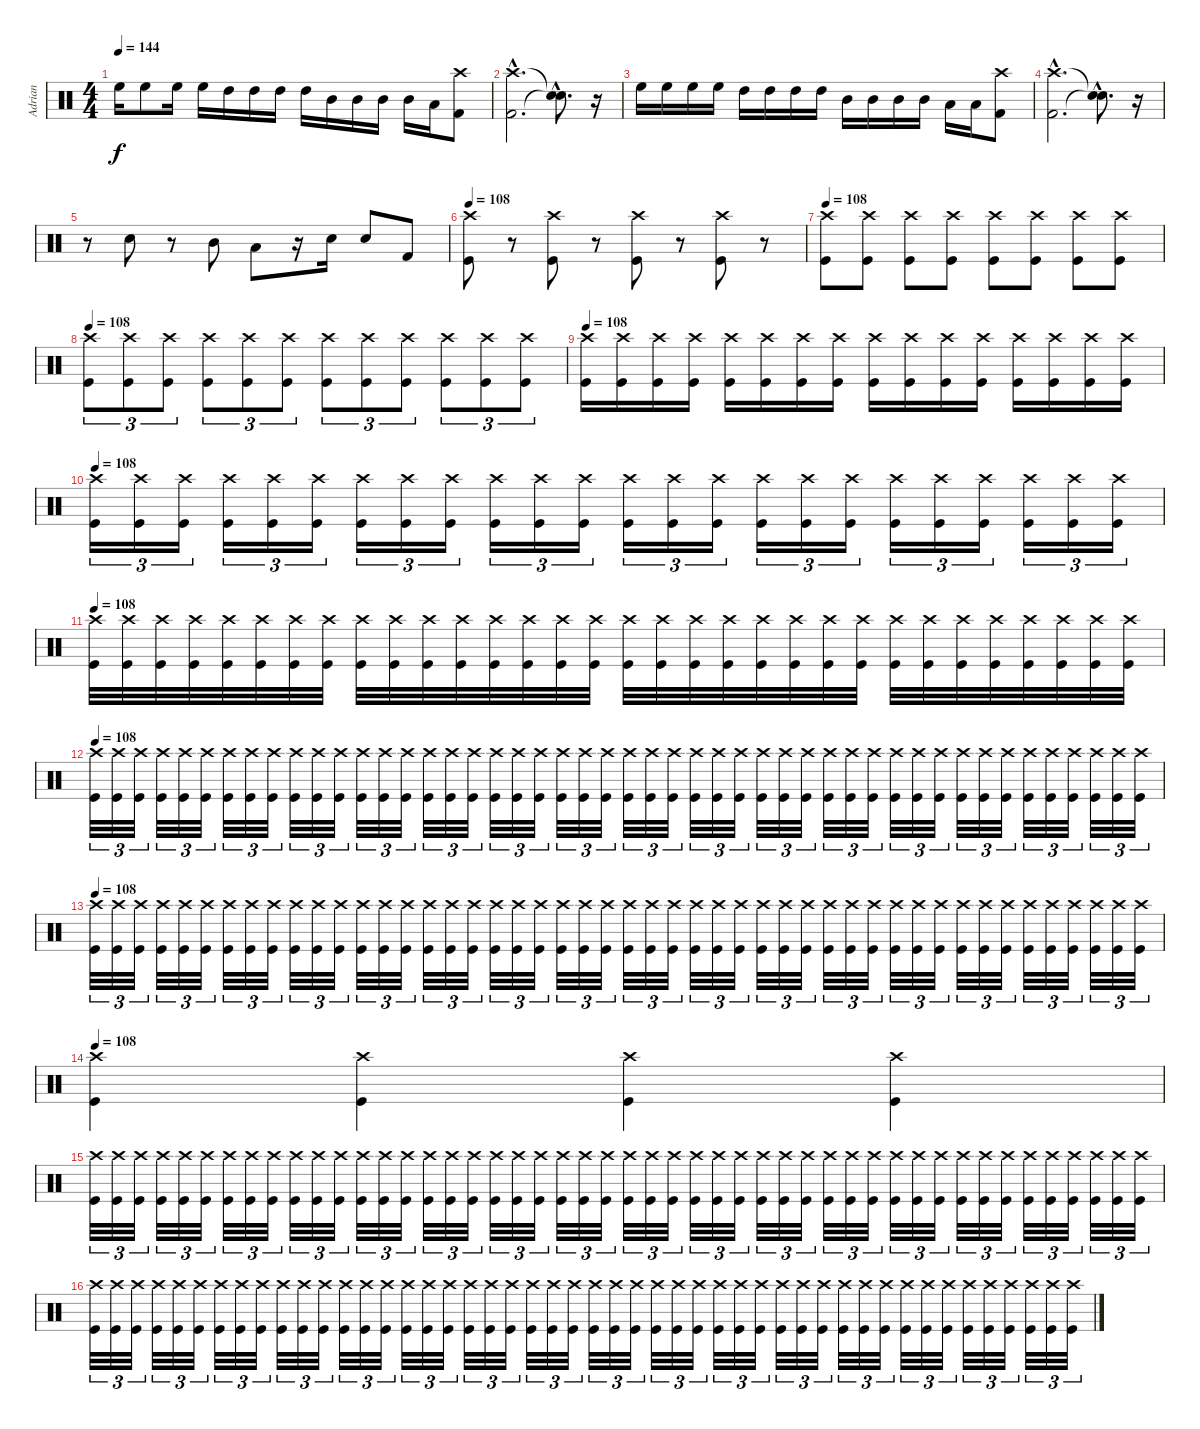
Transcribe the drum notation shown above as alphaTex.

\track ("Adrian" "Adrian") {instrument percussion}
\staff {score}
\articulation defaults
\ts (4 4)
\tempo 144
\clef neutral
\ks c "High Floor Tom (hit)".16{dy f} "High Floor Tom (hit)".8 "High Floor Tom (hit)".16 "High Floor Tom (hit)".16 "High Tom (hit)".16 "High Tom (hit)".16 "High Tom (hit)".16 "High Tom (hit)".16 "Mid Tom (hit)".16 "Mid Tom (hit)".16 "Mid Tom (hit)".16 "Mid Tom (hit)".16 "Low Tom (hit)".16
("Kick (hit) 2" "Crash high (hit)").8 |
("Kick (hit) 2"{hac} "Crash high (hit)"{hac}).2{d} ("Snare (hit)"{hac t} "Snare (hit)"{hac t}).8{d} r.16 |
"High Floor Tom (hit)".16 "High Floor Tom (hit)".16 "High Floor Tom (hit)".16 "High Floor Tom (hit)".16 "High Tom (hit)".16 "High Tom (hit)".16 "High Tom (hit)".16 "High Tom (hit)".16 "Mid Tom (hit)".16 "Mid Tom (hit)".16 "Mid Tom (hit)".16 "Mid Tom (hit)".16 "Low Tom (hit)".16 "Low Tom (hit)".16 ("Kick (hit) 2" "Crash high (hit)").8 |
("Kick (hit) 2"{hac} "Crash high (hit)"{hac}).2{d} ("Snare (hit)"{hac t} "Snare (hit)"{hac t}).8{d} r.16 |
r.8 "Snare (hit) 2".8 r.8 "Mid Tom (hit)".8 "Low Tom (hit)".8 r.16 "Snare (hit) 2".16 "Snare (hit) 2".8 "Kick (hit) 2".8 |
\tempo 108
("Kick (hit)" "Crash high (hit)").8 r.8 ("Kick (hit)" "Crash high (hit)").8 r.8 ("Kick (hit)" "Crash high (hit)").8 r.8 ("Kick (hit)" "Crash high (hit)").8 r.8 |
\tempo 108
("Kick (hit)" "Crash high (hit)").8 ("Kick (hit)" "Crash high (hit)").8 ("Kick (hit)" "Crash high (hit)").8 ("Kick (hit)" "Crash high (hit)").8 ("Kick (hit)" "Crash high (hit)").8 ("Kick (hit)" "Crash high (hit)").8 ("Kick (hit)" "Crash high (hit)").8 ("Kick (hit)" "Crash high (hit)").8 |
\tempo 108
("Kick (hit)" "Crash high (hit)").8{tu (3 2)} ("Kick (hit)" "Crash high (hit)").8{tu (3 2)} ("Kick (hit)" "Crash high (hit)").8{tu (3 2)} ("Kick (hit)" "Crash high (hit)").8{tu (3 2)} ("Kick (hit)" "Crash high (hit)").8{tu (3 2)} ("Kick (hit)" "Crash high (hit)").8{tu (3 2)} ("Kick (hit)" "Crash high (hit)").8{tu (3 2)} ("Kick (hit)" "Crash high (hit)").8{tu (3 2)} ("Kick (hit)" "Crash high (hit)").8{tu (3 2)} ("Kick (hit)" "Crash high (hit)").8{tu (3 2)} ("Kick (hit)" "Crash high (hit)").8{tu (3 2)} ("Kick (hit)" "Crash high (hit)").8{tu (3 2)} |
\tempo 108
("Kick (hit)" "Crash high (hit)").16 ("Kick (hit)" "Crash high (hit)").16 ("Kick (hit)" "Crash high (hit)").16 ("Kick (hit)" "Crash high (hit)").16 ("Kick (hit)" "Crash high (hit)").16 ("Kick (hit)" "Crash high (hit)").16 ("Kick (hit)" "Crash high (hit)").16 ("Kick (hit)" "Crash high (hit)").16 ("Kick (hit)" "Crash high (hit)").16 ("Kick (hit)" "Crash high (hit)").16 ("Kick (hit)" "Crash high (hit)").16 ("Kick (hit)" "Crash high (hit)").16 ("Kick (hit)" "Crash high (hit)").16 ("Kick (hit)" "Crash high (hit)").16 ("Kick (hit)" "Crash high (hit)").16 ("Kick (hit)" "Crash high (hit)").16 |
\tempo 108
("Kick (hit)" "Crash high (hit)").16{tu (3 2)} ("Kick (hit)" "Crash high (hit)").16{tu (3 2)} ("Kick (hit)" "Crash high (hit)").16{tu (3 2)} ("Kick (hit)" "Crash high (hit)").16{tu (3 2)} ("Kick (hit)" "Crash high (hit)").16{tu (3 2)} ("Kick (hit)" "Crash high (hit)").16{tu (3 2)} ("Kick (hit)" "Crash high (hit)").16{tu (3 2)} ("Kick (hit)" "Crash high (hit)").16{tu (3 2)} ("Kick (hit)" "Crash high (hit)").16{tu (3 2)} ("Kick (hit)" "Crash high (hit)").16{tu (3 2)} ("Kick (hit)" "Crash high (hit)").16{tu (3 2)} ("Kick (hit)" "Crash high (hit)").16{tu (3 2)} ("Kick (hit)" "Crash high (hit)").16{tu (3 2)} ("Kick (hit)" "Crash high (hit)").16{tu (3 2)} ("Kick (hit)" "Crash high (hit)").16{tu (3 2)} ("Kick (hit)" "Crash high (hit)").16{tu (3 2)} ("Kick (hit)" "Crash high (hit)").16{tu (3 2)} ("Kick (hit)" "Crash high (hit)").16{tu (3 2)} ("Kick (hit)" "Crash high (hit)").16{tu (3 2)} ("Kick (hit)" "Crash high (hit)").16{tu (3 2)} ("Kick (hit)" "Crash high (hit)").16{tu (3 2)} ("Kick (hit)" "Crash high (hit)").16{tu (3 2)} ("Kick (hit)" "Crash high (hit)").16{tu (3 2)} ("Kick (hit)" "Crash high (hit)").16{tu (3 2)} |
\tempo 108
("Kick (hit)" "Crash high (hit)").32 ("Kick (hit)" "Crash high (hit)").32 ("Kick (hit)" "Crash high (hit)").32 ("Kick (hit)" "Crash high (hit)").32 ("Kick (hit)" "Crash high (hit)").32 ("Kick (hit)" "Crash high (hit)").32 ("Kick (hit)" "Crash high (hit)").32 ("Kick (hit)" "Crash high (hit)").32 ("Kick (hit)" "Crash high (hit)").32 ("Kick (hit)" "Crash high (hit)").32 ("Kick (hit)" "Crash high (hit)").32 ("Kick (hit)" "Crash high (hit)").32 ("Kick (hit)" "Crash high (hit)").32 ("Kick (hit)" "Crash high (hit)").32 ("Kick (hit)" "Crash high (hit)").32 ("Kick (hit)" "Crash high (hit)").32 ("Kick (hit)" "Crash high (hit)").32 ("Kick (hit)" "Crash high (hit)").32 ("Kick (hit)" "Crash high (hit)").32 ("Kick (hit)" "Crash high (hit)").32 ("Kick (hit)" "Crash high (hit)").32 ("Kick (hit)" "Crash high (hit)").32 ("Kick (hit)" "Crash high (hit)").32 ("Kick (hit)" "Crash high (hit)").32 ("Kick (hit)" "Crash high (hit)").32 ("Kick (hit)" "Crash high (hit)").32 ("Kick (hit)" "Crash high (hit)").32 ("Kick (hit)" "Crash high (hit)").32 ("Kick (hit)" "Crash high (hit)").32 ("Kick (hit)" "Crash high (hit)").32 ("Kick (hit)" "Crash high (hit)").32 ("Kick (hit)" "Crash high (hit)").32 |
\tempo 108
("Kick (hit)" "Crash high (hit)").32{tu (3 2)} ("Kick (hit)" "Crash high (hit)").32{tu (3 2)} ("Kick (hit)" "Crash high (hit)").32{tu (3 2)} ("Kick (hit)" "Crash high (hit)").32{tu (3 2)} ("Kick (hit)" "Crash high (hit)").32{tu (3 2)} ("Kick (hit)" "Crash high (hit)").32{tu (3 2)} ("Kick (hit)" "Crash high (hit)").32{tu (3 2)} ("Kick (hit)" "Crash high (hit)").32{tu (3 2)} ("Kick (hit)" "Crash high (hit)").32{tu (3 2)} ("Kick (hit)" "Crash high (hit)").32{tu (3 2)} ("Kick (hit)" "Crash high (hit)").32{tu (3 2)} ("Kick (hit)" "Crash high (hit)").32{tu (3 2)} ("Kick (hit)" "Crash high (hit)").32{tu (3 2)} ("Kick (hit)" "Crash high (hit)").32{tu (3 2)} ("Kick (hit)" "Crash high (hit)").32{tu (3 2)} ("Kick (hit)" "Crash high (hit)").32{tu (3 2)} ("Kick (hit)" "Crash high (hit)").32{tu (3 2)} ("Kick (hit)" "Crash high (hit)").32{tu (3 2)} ("Kick (hit)" "Crash high (hit)").32{tu (3 2)} ("Kick (hit)" "Crash high (hit)").32{tu (3 2)} ("Kick (hit)" "Crash high (hit)").32{tu (3 2)} ("Kick (hit)" "Crash high (hit)").32{tu (3 2)} ("Kick (hit)" "Crash high (hit)").32{tu (3 2)} ("Kick (hit)" "Crash high (hit)").32{tu (3 2)} ("Kick (hit)" "Crash high (hit)").32{tu (3 2)} ("Kick (hit)" "Crash high (hit)").32{tu (3 2)} ("Kick (hit)" "Crash high (hit)").32{tu (3 2)} ("Kick (hit)" "Crash high (hit)").32{tu (3 2)} ("Kick (hit)" "Crash high (hit)").32{tu (3 2)} ("Kick (hit)" "Crash high (hit)").32{tu (3 2)} ("Kick (hit)" "Crash high (hit)").32{tu (3 2)} ("Kick (hit)" "Crash high (hit)").32{tu (3 2)} ("Kick (hit)" "Crash high (hit)").32{tu (3 2)} ("Kick (hit)" "Crash high (hit)").32{tu (3 2)} ("Kick (hit)" "Crash high (hit)").32{tu (3 2)} ("Kick (hit)" "Crash high (hit)").32{tu (3 2)} ("Kick (hit)" "Crash high (hit)").32{tu (3 2)} ("Kick (hit)" "Crash high (hit)").32{tu (3 2)} ("Kick (hit)" "Crash high (hit)").32{tu (3 2)} ("Kick (hit)" "Crash high (hit)").32{tu (3 2)} ("Kick (hit)" "Crash high (hit)").32{tu (3 2)} ("Kick (hit)" "Crash high (hit)").32{tu (3 2)} ("Kick (hit)" "Crash high (hit)").32{tu (3 2)} ("Kick (hit)" "Crash high (hit)").32{tu (3 2)} ("Kick (hit)" "Crash high (hit)").32{tu (3 2)} ("Kick (hit)" "Crash high (hit)").32{tu (3 2)} ("Kick (hit)" "Crash high (hit)").32{tu (3 2)} ("Kick (hit)" "Crash high (hit)").32{tu (3 2)} |
\tempo 108
("Kick (hit)" "Crash high (hit)").32{tu (3 2)} ("Kick (hit)" "Crash high (hit)").32{tu (3 2)} ("Kick (hit)" "Crash high (hit)").32{tu (3 2)} ("Kick (hit)" "Crash high (hit)").32{tu (3 2)} ("Kick (hit)" "Crash high (hit)").32{tu (3 2)} ("Kick (hit)" "Crash high (hit)").32{tu (3 2)} ("Kick (hit)" "Crash high (hit)").32{tu (3 2)} ("Kick (hit)" "Crash high (hit)").32{tu (3 2)} ("Kick (hit)" "Crash high (hit)").32{tu (3 2)} ("Kick (hit)" "Crash high (hit)").32{tu (3 2)} ("Kick (hit)" "Crash high (hit)").32{tu (3 2)} ("Kick (hit)" "Crash high (hit)").32{tu (3 2)} ("Kick (hit)" "Crash high (hit)").32{tu (3 2)} ("Kick (hit)" "Crash high (hit)").32{tu (3 2)} ("Kick (hit)" "Crash high (hit)").32{tu (3 2)} ("Kick (hit)" "Crash high (hit)").32{tu (3 2)} ("Kick (hit)" "Crash high (hit)").32{tu (3 2)} ("Kick (hit)" "Crash high (hit)").32{tu (3 2)} ("Kick (hit)" "Crash high (hit)").32{tu (3 2)} ("Kick (hit)" "Crash high (hit)").32{tu (3 2)} ("Kick (hit)" "Crash high (hit)").32{tu (3 2)} ("Kick (hit)" "Crash high (hit)").32{tu (3 2)} ("Kick (hit)" "Crash high (hit)").32{tu (3 2)} ("Kick (hit)" "Crash high (hit)").32{tu (3 2)} ("Kick (hit)" "Crash high (hit)").32{tu (3 2)} ("Kick (hit)" "Crash high (hit)").32{tu (3 2)} ("Kick (hit)" "Crash high (hit)").32{tu (3 2)} ("Kick (hit)" "Crash high (hit)").32{tu (3 2)} ("Kick (hit)" "Crash high (hit)").32{tu (3 2)} ("Kick (hit)" "Crash high (hit)").32{tu (3 2)} ("Kick (hit)" "Crash high (hit)").32{tu (3 2)} ("Kick (hit)" "Crash high (hit)").32{tu (3 2)} ("Kick (hit)" "Crash high (hit)").32{tu (3 2)} ("Kick (hit)" "Crash high (hit)").32{tu (3 2)} ("Kick (hit)" "Crash high (hit)").32{tu (3 2)} ("Kick (hit)" "Crash high (hit)").32{tu (3 2)} ("Kick (hit)" "Crash high (hit)").32{tu (3 2)} ("Kick (hit)" "Crash high (hit)").32{tu (3 2)} ("Kick (hit)" "Crash high (hit)").32{tu (3 2)} ("Kick (hit)" "Crash high (hit)").32{tu (3 2)} ("Kick (hit)" "Crash high (hit)").32{tu (3 2)} ("Kick (hit)" "Crash high (hit)").32{tu (3 2)} ("Kick (hit)" "Crash high (hit)").32{tu (3 2)} ("Kick (hit)" "Crash high (hit)").32{tu (3 2)} ("Kick (hit)" "Crash high (hit)").32{tu (3 2)} ("Kick (hit)" "Crash high (hit)").32{tu (3 2)} ("Kick (hit)" "Crash high (hit)").32{tu (3 2)} ("Kick (hit)" "Crash high (hit)").32{tu (3 2)} |
\tempo 108
("Kick (hit)" "Crash high (hit)").4 ("Kick (hit)" "Crash high (hit)").4 ("Kick (hit)" "Crash high (hit)").4 ("Kick (hit)" "Crash high (hit)").4 |
("Kick (hit)" "Crash high (hit)").32{tu (3 2)} ("Kick (hit)" "Crash high (hit)").32{tu (3 2)} ("Kick (hit)" "Crash high (hit)").32{tu (3 2)} ("Kick (hit)" "Crash high (hit)").32{tu (3 2)} ("Kick (hit)" "Crash high (hit)").32{tu (3 2)} ("Kick (hit)" "Crash high (hit)").32{tu (3 2)} ("Kick (hit)" "Crash high (hit)").32{tu (3 2)} ("Kick (hit)" "Crash high (hit)").32{tu (3 2)} ("Kick (hit)" "Crash high (hit)").32{tu (3 2)} ("Kick (hit)" "Crash high (hit)").32{tu (3 2)} ("Kick (hit)" "Crash high (hit)").32{tu (3 2)} ("Kick (hit)" "Crash high (hit)").32{tu (3 2)} ("Kick (hit)" "Crash high (hit)").32{tu (3 2)} ("Kick (hit)" "Crash high (hit)").32{tu (3 2)} ("Kick (hit)" "Crash high (hit)").32{tu (3 2)} ("Kick (hit)" "Crash high (hit)").32{tu (3 2)} ("Kick (hit)" "Crash high (hit)").32{tu (3 2)} ("Kick (hit)" "Crash high (hit)").32{tu (3 2)} ("Kick (hit)" "Crash high (hit)").32{tu (3 2)} ("Kick (hit)" "Crash high (hit)").32{tu (3 2)} ("Kick (hit)" "Crash high (hit)").32{tu (3 2)} ("Kick (hit)" "Crash high (hit)").32{tu (3 2)} ("Kick (hit)" "Crash high (hit)").32{tu (3 2)} ("Kick (hit)" "Crash high (hit)").32{tu (3 2)} ("Kick (hit)" "Crash high (hit)").32{tu (3 2)} ("Kick (hit)" "Crash high (hit)").32{tu (3 2)} ("Kick (hit)" "Crash high (hit)").32{tu (3 2)} ("Kick (hit)" "Crash high (hit)").32{tu (3 2)} ("Kick (hit)" "Crash high (hit)").32{tu (3 2)} ("Kick (hit)" "Crash high (hit)").32{tu (3 2)} ("Kick (hit)" "Crash high (hit)").32{tu (3 2)} ("Kick (hit)" "Crash high (hit)").32{tu (3 2)} ("Kick (hit)" "Crash high (hit)").32{tu (3 2)} ("Kick (hit)" "Crash high (hit)").32{tu (3 2)} ("Kick (hit)" "Crash high (hit)").32{tu (3 2)} ("Kick (hit)" "Crash high (hit)").32{tu (3 2)} ("Kick (hit)" "Crash high (hit)").32{tu (3 2)} ("Kick (hit)" "Crash high (hit)").32{tu (3 2)} ("Kick (hit)" "Crash high (hit)").32{tu (3 2)} ("Kick (hit)" "Crash high (hit)").32{tu (3 2)} ("Kick (hit)" "Crash high (hit)").32{tu (3 2)} ("Kick (hit)" "Crash high (hit)").32{tu (3 2)} ("Kick (hit)" "Crash high (hit)").32{tu (3 2)} ("Kick (hit)" "Crash high (hit)").32{tu (3 2)} ("Kick (hit)" "Crash high (hit)").32{tu (3 2)} ("Kick (hit)" "Crash high (hit)").32{tu (3 2)} ("Kick (hit)" "Crash high (hit)").32{tu (3 2)} ("Kick (hit)" "Crash high (hit)").32{tu (3 2)} |
("Kick (hit)" "Crash high (hit)").32{tu (3 2)} ("Kick (hit)" "Crash high (hit)").32{tu (3 2)} ("Kick (hit)" "Crash high (hit)").32{tu (3 2)} ("Kick (hit)" "Crash high (hit)").32{tu (3 2)} ("Kick (hit)" "Crash high (hit)").32{tu (3 2)} ("Kick (hit)" "Crash high (hit)").32{tu (3 2)} ("Kick (hit)" "Crash high (hit)").32{tu (3 2)} ("Kick (hit)" "Crash high (hit)").32{tu (3 2)} ("Kick (hit)" "Crash high (hit)").32{tu (3 2)} ("Kick (hit)" "Crash high (hit)").32{tu (3 2)} ("Kick (hit)" "Crash high (hit)").32{tu (3 2)} ("Kick (hit)" "Crash high (hit)").32{tu (3 2)} ("Kick (hit)" "Crash high (hit)").32{tu (3 2)} ("Kick (hit)" "Crash high (hit)").32{tu (3 2)} ("Kick (hit)" "Crash high (hit)").32{tu (3 2)} ("Kick (hit)" "Crash high (hit)").32{tu (3 2)} ("Kick (hit)" "Crash high (hit)").32{tu (3 2)} ("Kick (hit)" "Crash high (hit)").32{tu (3 2)} ("Kick (hit)" "Crash high (hit)").32{tu (3 2)} ("Kick (hit)" "Crash high (hit)").32{tu (3 2)} ("Kick (hit)" "Crash high (hit)").32{tu (3 2)} ("Kick (hit)" "Crash high (hit)").32{tu (3 2)} ("Kick (hit)" "Crash high (hit)").32{tu (3 2)} ("Kick (hit)" "Crash high (hit)").32{tu (3 2)} ("Kick (hit)" "Crash high (hit)").32{tu (3 2)} ("Kick (hit)" "Crash high (hit)").32{tu (3 2)} ("Kick (hit)" "Crash high (hit)").32{tu (3 2)} ("Kick (hit)" "Crash high (hit)").32{tu (3 2)} ("Kick (hit)" "Crash high (hit)").32{tu (3 2)} ("Kick (hit)" "Crash high (hit)").32{tu (3 2)} ("Kick (hit)" "Crash high (hit)").32{tu (3 2)} ("Kick (hit)" "Crash high (hit)").32{tu (3 2)} ("Kick (hit)" "Crash high (hit)").32{tu (3 2)} ("Kick (hit)" "Crash high (hit)").32{tu (3 2)} ("Kick (hit)" "Crash high (hit)").32{tu (3 2)} ("Kick (hit)" "Crash high (hit)").32{tu (3 2)} ("Kick (hit)" "Crash high (hit)").32{tu (3 2)} ("Kick (hit)" "Crash high (hit)").32{tu (3 2)} ("Kick (hit)" "Crash high (hit)").32{tu (3 2)} ("Kick (hit)" "Crash high (hit)").32{tu (3 2)} ("Kick (hit)" "Crash high (hit)").32{tu (3 2)} ("Kick (hit)" "Crash high (hit)").32{tu (3 2)} ("Kick (hit)" "Crash high (hit)").32{tu (3 2)} ("Kick (hit)" "Crash high (hit)").32{tu (3 2)} ("Kick (hit)" "Crash high (hit)").32{tu (3 2)} ("Kick (hit)" "Crash high (hit)").32{tu (3 2)} ("Kick (hit)" "Crash high (hit)").32{tu (3 2)} ("Kick (hit)" "Crash high (hit)").32{tu (3 2)}
